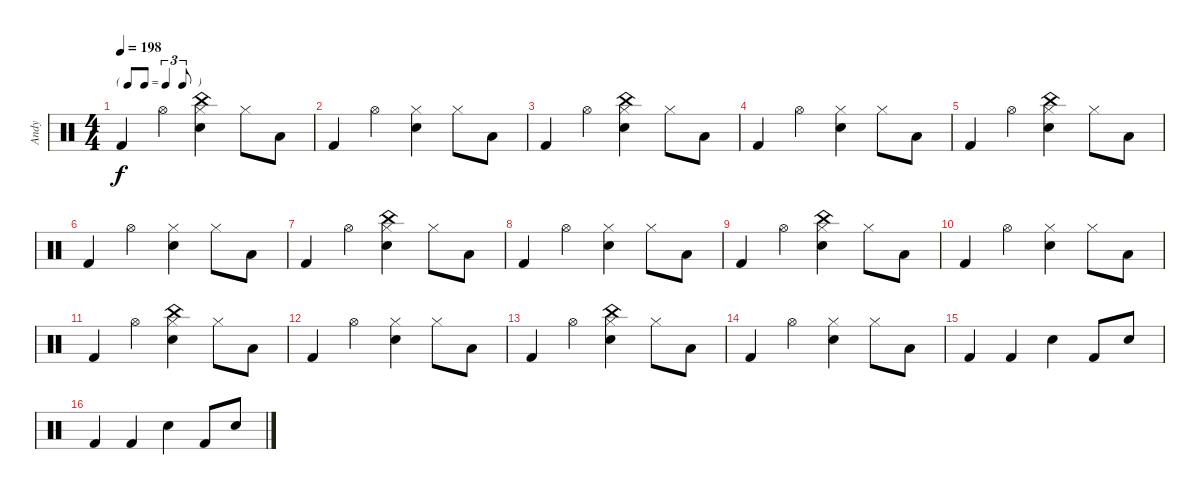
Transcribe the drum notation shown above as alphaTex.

\track ("Andy" "Andy") {instrument percussion}
\staff {score}
\articulation defaults
\ts (4 4)
\tf triplet8th
\tempo 198
\clef neutral
\ks c "Kick (hit) 2".4{dy f} "Hi-Hat (open)".4
("China (hit)" "Hi-Hat (closed)" "Electric Snare (hit)").4 "Hi-Hat (closed)".8 "Low Floor Tom (hit)".8 |
"Kick (hit) 2".4 "Hi-Hat (open)".4 ("Hi-Hat (closed)" "Electric Snare (hit)").4 "Hi-Hat (closed)".8 "Low Floor Tom (hit)".8 |
"Kick (hit) 2".4 "Hi-Hat (open)".4 ("China (hit)" "Hi-Hat (closed)" "Electric Snare (hit)").4 "Hi-Hat (closed)".8 "Low Floor Tom (hit)".8 |
"Kick (hit) 2".4 "Hi-Hat (open)".4 ("Hi-Hat (closed)" "Electric Snare (hit)").4 "Hi-Hat (closed)".8 "Low Floor Tom (hit)".8 |
"Kick (hit) 2".4 "Hi-Hat (open)".4 ("China (hit)" "Hi-Hat (closed)" "Electric Snare (hit)").4 "Hi-Hat (closed)".8 "Low Floor Tom (hit)".8 |
"Kick (hit) 2".4 "Hi-Hat (open)".4 ("Hi-Hat (closed)" "Electric Snare (hit)").4 "Hi-Hat (closed)".8 "Low Floor Tom (hit)".8 |
"Kick (hit) 2".4 "Hi-Hat (open)".4 ("China (hit)" "Hi-Hat (closed)" "Electric Snare (hit)").4 "Hi-Hat (closed)".8 "Low Floor Tom (hit)".8 |
"Kick (hit) 2".4 "Hi-Hat (open)".4 ("Hi-Hat (closed)" "Electric Snare (hit)").4 "Hi-Hat (closed)".8 "Low Floor Tom (hit)".8 |
"Kick (hit) 2".4 "Hi-Hat (open)".4 ("China (hit)" "Hi-Hat (closed)" "Electric Snare (hit)").4 "Hi-Hat (closed)".8 "Low Floor Tom (hit)".8 |
"Kick (hit) 2".4 "Hi-Hat (open)".4 ("Hi-Hat (closed)" "Electric Snare (hit)").4 "Hi-Hat (closed)".8 "Low Floor Tom (hit)".8 |
"Kick (hit) 2".4 "Hi-Hat (open)".4 ("China (hit)" "Hi-Hat (closed)" "Electric Snare (hit)").4 "Hi-Hat (closed)".8 "Low Floor Tom (hit)".8 |
"Kick (hit) 2".4 "Hi-Hat (open)".4 ("Hi-Hat (closed)" "Electric Snare (hit)").4 "Hi-Hat (closed)".8 "Low Floor Tom (hit)".8 |
"Kick (hit) 2".4 "Hi-Hat (open)".4 ("China (hit)" "Hi-Hat (closed)" "Electric Snare (hit)").4 "Hi-Hat (closed)".8 "Low Floor Tom (hit)".8 |
"Kick (hit) 2".4 "Hi-Hat (open)".4 ("Hi-Hat (closed)" "Electric Snare (hit)").4 "Hi-Hat (closed)".8 "Low Floor Tom (hit)".8 |
"Kick (hit) 2".4 "Kick (hit) 2".4 "Electric Snare (hit)".4 "Kick (hit) 2".8 "Electric Snare (hit)".8 |
"Kick (hit) 2".4 "Kick (hit) 2".4 "Electric Snare (hit)".4 "Kick (hit) 2".8 "Electric Snare (hit)".8
